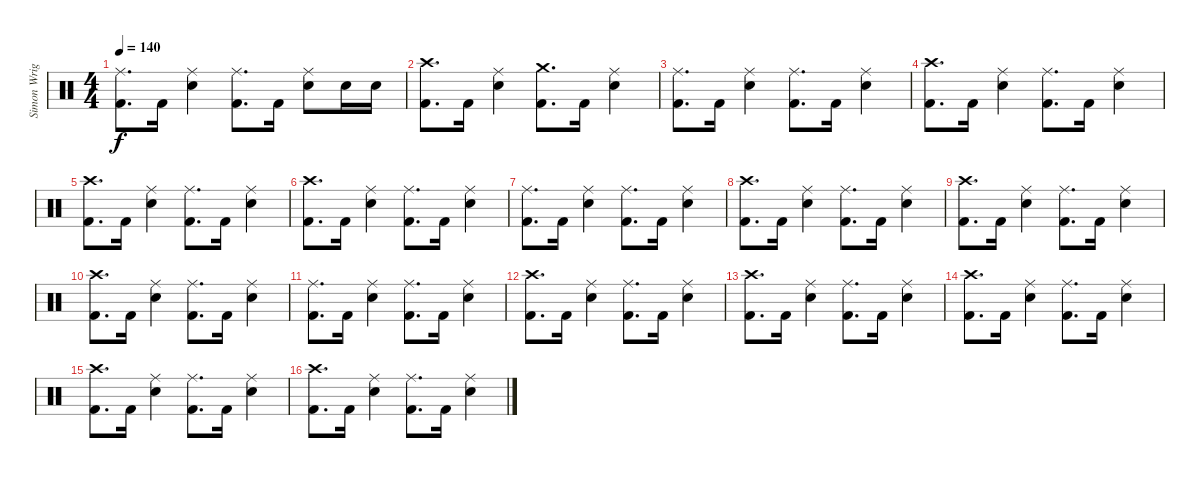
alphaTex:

\track ("Simon Wright" "Simon Wrig") {instrument percussion}
\staff {score}
\articulation defaults
\ts (4 4)
\tempo 140
\clef neutral
\ks c
("Ride (middle)" "Kick (hit) 2").8{d dy f} "Kick (hit) 2".16 ("Ride (middle)" "Snare (hit) 2").4 ("Ride (middle)" "Kick (hit) 2").8{d} "Kick (hit) 2".16 ("Ride (middle)" "Snare (hit) 2").8 "Snare (hit) 2".16 "Snare (hit) 2".16 |
("Crash high (hit)" "Kick (hit) 2").8{d} "Kick (hit) 2".16 ("Ride (middle)" "Snare (hit) 2").4 ("Crash medium (hit)" "Kick (hit) 2").8{d} "Kick (hit) 2".16 ("Ride (middle)" "Snare (hit) 2").4 |
("Ride (middle)" "Kick (hit) 2").8{d} "Kick (hit) 2".16 ("Ride (middle)" "Snare (hit) 2").4 ("Ride (middle)" "Kick (hit) 2").8{d} "Kick (hit) 2".16 ("Ride (middle)" "Snare (hit) 2").4 |
("Crash high (hit)" "Kick (hit) 2").8{d} "Kick (hit) 2".16 ("Ride (middle)" "Snare (hit) 2").4 ("Ride (middle)" "Kick (hit) 2").8{d} "Kick (hit) 2".16 ("Ride (middle)" "Snare (hit) 2").4 |
("Crash high (hit)" "Kick (hit) 2").8{d} "Kick (hit) 2".16 ("Ride (middle)" "Snare (hit) 2").4 ("Ride (middle)" "Kick (hit) 2").8{d} "Kick (hit) 2".16 ("Ride (middle)" "Snare (hit) 2").4 |
("Crash high (hit)" "Kick (hit) 2").8{d} "Kick (hit) 2".16 ("Ride (middle)" "Snare (hit) 2").4 ("Ride (middle)" "Kick (hit) 2").8{d} "Kick (hit) 2".16 ("Ride (middle)" "Snare (hit) 2").4 |
("Ride (middle)" "Kick (hit) 2").8{d} "Kick (hit) 2".16 ("Ride (middle)" "Snare (hit) 2").4 ("Ride (middle)" "Kick (hit) 2").8{d} "Kick (hit) 2".16 ("Ride (middle)" "Snare (hit) 2").4 |
("Crash high (hit)" "Kick (hit) 2").8{d} "Kick (hit) 2".16 ("Ride (middle)" "Snare (hit) 2").4 ("Ride (middle)" "Kick (hit) 2").8{d} "Kick (hit) 2".16 ("Ride (middle)" "Snare (hit) 2").4 |
("Crash high (hit)" "Kick (hit) 2").8{d} "Kick (hit) 2".16 ("Ride (middle)" "Snare (hit) 2").4 ("Ride (middle)" "Kick (hit) 2").8{d} "Kick (hit) 2".16 ("Ride (middle)" "Snare (hit) 2").4 |
("Crash high (hit)" "Kick (hit) 2").8{d} "Kick (hit) 2".16 ("Ride (middle)" "Snare (hit) 2").4 ("Ride (middle)" "Kick (hit) 2").8{d} "Kick (hit) 2".16 ("Ride (middle)" "Snare (hit) 2").4 |
("Ride (middle)" "Kick (hit) 2").8{d} "Kick (hit) 2".16 ("Ride (middle)" "Snare (hit) 2").4 ("Ride (middle)" "Kick (hit) 2").8{d} "Kick (hit) 2".16 ("Ride (middle)" "Snare (hit) 2").4 |
("Crash high (hit)" "Kick (hit) 2").8{d} "Kick (hit) 2".16 ("Ride (middle)" "Snare (hit) 2").4 ("Ride (middle)" "Kick (hit) 2").8{d} "Kick (hit) 2".16 ("Ride (middle)" "Snare (hit) 2").4 |
("Crash high (hit)" "Kick (hit) 2").8{d} "Kick (hit) 2".16 ("Ride (middle)" "Snare (hit) 2").4 ("Ride (middle)" "Kick (hit) 2").8{d} "Kick (hit) 2".16 ("Ride (middle)" "Snare (hit) 2").4 |
("Crash high (hit)" "Kick (hit) 2").8{d} "Kick (hit) 2".16 ("Ride (middle)" "Snare (hit) 2").4 ("Ride (middle)" "Kick (hit) 2").8{d} "Kick (hit) 2".16 ("Ride (middle)" "Snare (hit) 2").4 |
("Crash high (hit)" "Kick (hit) 2").8{d} "Kick (hit) 2".16 ("Ride (middle)" "Snare (hit) 2").4 ("Ride (middle)" "Kick (hit) 2").8{d} "Kick (hit) 2".16 ("Ride (middle)" "Snare (hit) 2").4 |
("Crash high (hit)" "Kick (hit) 2").8{d} "Kick (hit) 2".16 ("Ride (middle)" "Snare (hit) 2").4 ("Ride (middle)" "Kick (hit) 2").8{d} "Kick (hit) 2".16 ("Ride (middle)" "Snare (hit) 2").4
